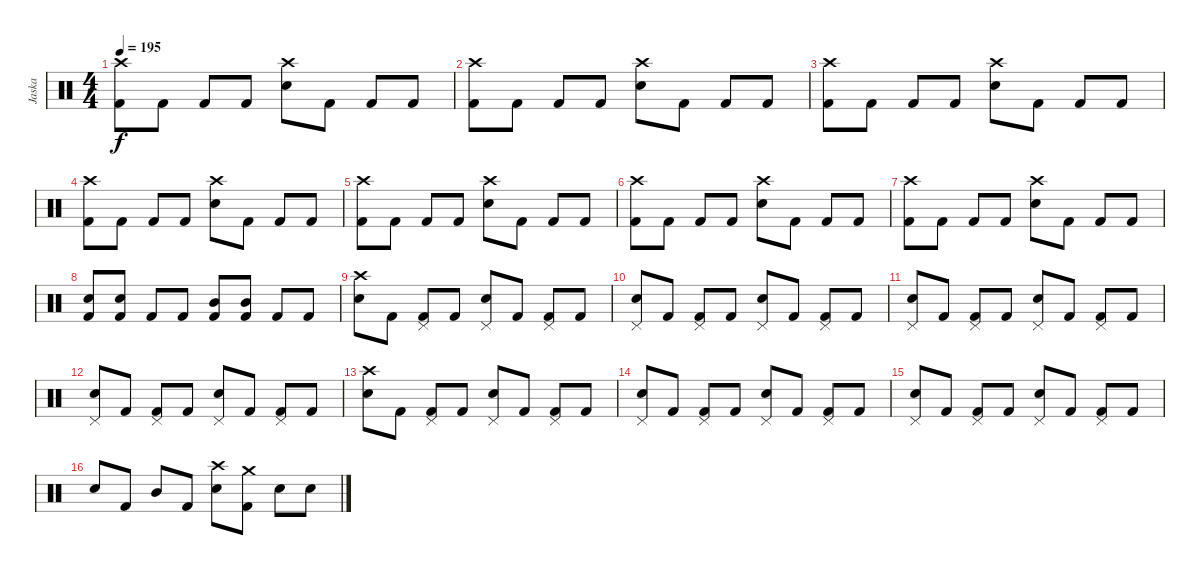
\track ("Jaska" "Jaska") {instrument percussion}
\staff {score}
\articulation defaults
\ts (4 4)
\tempo 195
\clef neutral
\ks c
("Crash high (hit)" "Kick (hit) 2").8{dy f} "Kick (hit) 2".8 "Kick (hit) 2".8 "Kick (hit) 2".8 ("Crash high (hit)" "Electric Snare (hit)").8 "Kick (hit) 2".8 "Kick (hit) 2".8 "Kick (hit) 2".8 |
("Crash high (hit)" "Kick (hit) 2").8 "Kick (hit) 2".8 "Kick (hit) 2".8 "Kick (hit) 2".8 ("Crash high (hit)" "Electric Snare (hit)").8 "Kick (hit) 2".8 "Kick (hit) 2".8 "Kick (hit) 2".8 |
("Crash high (hit)" "Kick (hit) 2").8 "Kick (hit) 2".8 "Kick (hit) 2".8 "Kick (hit) 2".8 ("Crash high (hit)" "Electric Snare (hit)").8 "Kick (hit) 2".8 "Kick (hit) 2".8 "Kick (hit) 2".8 |
("Crash high (hit)" "Kick (hit) 2").8 "Kick (hit) 2".8 "Kick (hit) 2".8 "Kick (hit) 2".8 ("Crash high (hit)" "Electric Snare (hit)").8 "Kick (hit) 2".8 "Kick (hit) 2".8 "Kick (hit) 2".8 |
("Crash high (hit)" "Kick (hit) 2").8 "Kick (hit) 2".8 "Kick (hit) 2".8 "Kick (hit) 2".8 ("Crash high (hit)" "Electric Snare (hit)").8 "Kick (hit) 2".8 "Kick (hit) 2".8 "Kick (hit) 2".8 |
("Crash high (hit)" "Kick (hit) 2").8 "Kick (hit) 2".8 "Kick (hit) 2".8 "Kick (hit) 2".8 ("Crash high (hit)" "Electric Snare (hit)").8 "Kick (hit) 2".8 "Kick (hit) 2".8 "Kick (hit) 2".8 |
("Crash high (hit)" "Kick (hit) 2").8 "Kick (hit) 2".8 "Kick (hit) 2".8 "Kick (hit) 2".8 ("Crash high (hit)" "Electric Snare (hit)").8 "Kick (hit) 2".8 "Kick (hit) 2".8 "Kick (hit) 2".8 |
("Electric Snare (hit)" "Kick (hit) 2").8 ("Electric Snare (hit)" "Kick (hit) 2").8 "Kick (hit) 2".8 "Kick (hit) 2".8 ("Mid Tom (hit)" "Kick (hit) 2").8 ("Mid Tom (hit)" "Kick (hit) 2").8 "Kick (hit) 2".8 "Kick (hit) 2".8 |
("Crash high (hit)" "Electric Snare (hit)").8 "Kick (hit) 2".8 ("Pedal Hi-Hat (hit)" "Kick (hit) 2").8 "Kick (hit) 2".8 ("Pedal Hi-Hat (hit)" "Electric Snare (hit)").8 "Kick (hit) 2".8 ("Pedal Hi-Hat (hit)" "Kick (hit) 2").8 "Kick (hit) 2".8 |
("Pedal Hi-Hat (hit)" "Electric Snare (hit)").8 "Kick (hit) 2".8 ("Pedal Hi-Hat (hit)" "Kick (hit) 2").8 "Kick (hit) 2".8 ("Pedal Hi-Hat (hit)" "Electric Snare (hit)").8 "Kick (hit) 2".8 ("Pedal Hi-Hat (hit)" "Kick (hit) 2").8 "Kick (hit) 2".8 |
("Pedal Hi-Hat (hit)" "Electric Snare (hit)").8 "Kick (hit) 2".8 ("Pedal Hi-Hat (hit)" "Kick (hit) 2").8 "Kick (hit) 2".8 ("Pedal Hi-Hat (hit)" "Electric Snare (hit)").8 "Kick (hit) 2".8 ("Pedal Hi-Hat (hit)" "Kick (hit) 2").8 "Kick (hit) 2".8 |
("Pedal Hi-Hat (hit)" "Electric Snare (hit)").8 "Kick (hit) 2".8 ("Pedal Hi-Hat (hit)" "Kick (hit) 2").8 "Kick (hit) 2".8 ("Pedal Hi-Hat (hit)" "Electric Snare (hit)").8 "Kick (hit) 2".8 ("Pedal Hi-Hat (hit)" "Kick (hit) 2").8 "Kick (hit) 2".8 |
("Crash high (hit)" "Electric Snare (hit)").8 "Kick (hit) 2".8 ("Pedal Hi-Hat (hit)" "Kick (hit) 2").8 "Kick (hit) 2".8 ("Pedal Hi-Hat (hit)" "Electric Snare (hit)").8 "Kick (hit) 2".8 ("Pedal Hi-Hat (hit)" "Kick (hit) 2").8 "Kick (hit) 2".8 |
("Pedal Hi-Hat (hit)" "Electric Snare (hit)").8 "Kick (hit) 2".8 ("Pedal Hi-Hat (hit)" "Kick (hit) 2").8 "Kick (hit) 2".8 ("Pedal Hi-Hat (hit)" "Electric Snare (hit)").8 "Kick (hit) 2".8 ("Pedal Hi-Hat (hit)" "Kick (hit) 2").8 "Kick (hit) 2".8 |
("Pedal Hi-Hat (hit)" "Electric Snare (hit)").8 "Kick (hit) 2".8 ("Pedal Hi-Hat (hit)" "Kick (hit) 2").8 "Kick (hit) 2".8 ("Pedal Hi-Hat (hit)" "Electric Snare (hit)").8 "Kick (hit) 2".8 ("Pedal Hi-Hat (hit)" "Kick (hit) 2").8 "Kick (hit) 2".8 |
"Electric Snare (hit)".8 "Kick (hit) 2".8 "Mid Tom (hit)".8 "Kick (hit) 2".8 ("Crash high (hit)" "Electric Snare (hit)").8 ("Crash medium (hit)" "Kick (hit) 2").8 "Electric Snare (hit)".8 "Electric Snare (hit)".8
